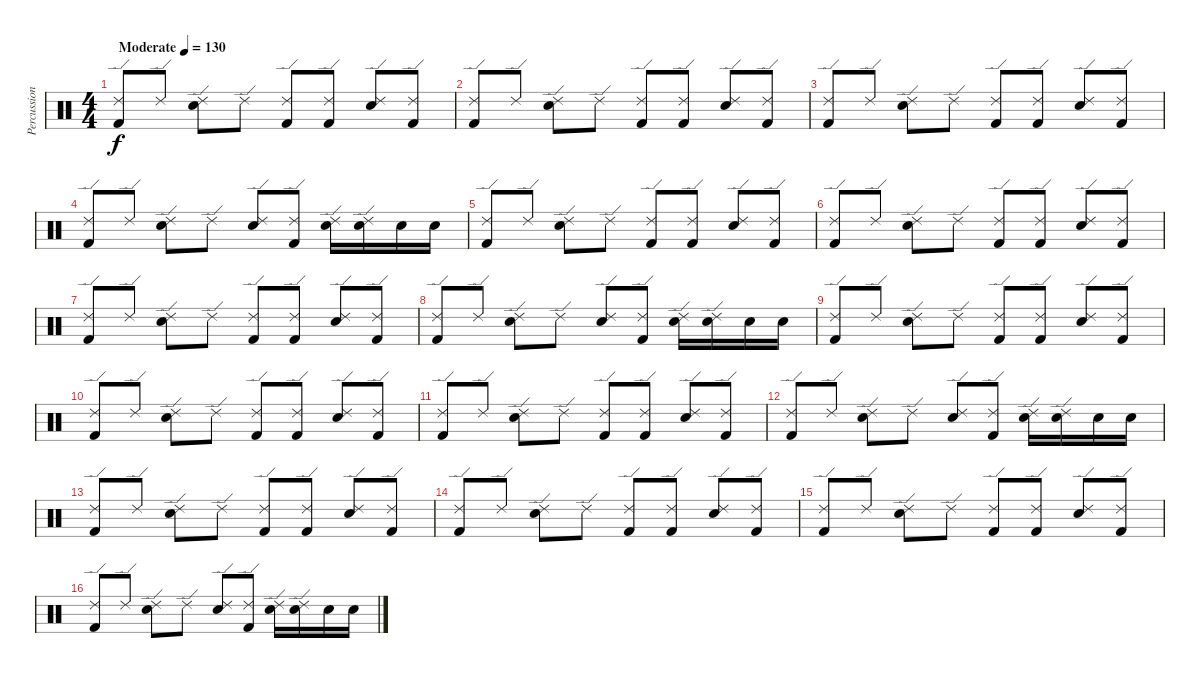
\track ("Percussion" "Percussion") {instrument percussion}
\staff {score}
\articulation defaults
\ts (4 4)
\tempo (130 "Moderate")
\clef neutral
\ks c
("Kick (hit) 2" "Ride (edge) 2").8{dy f} "Ride (edge) 2".8 ("Electric Snare (hit)" "Ride (edge) 2").8 "Ride (edge) 2".8 ("Kick (hit) 2" "Ride (edge) 2").8 ("Kick (hit) 2" "Ride (edge) 2").8 ("Electric Snare (hit)" "Ride (edge) 2").8 ("Kick (hit) 2" "Ride (edge) 2").8 |
("Kick (hit) 2" "Ride (edge) 2").8 "Ride (edge) 2".8 ("Electric Snare (hit)" "Ride (edge) 2").8 "Ride (edge) 2".8 ("Kick (hit) 2" "Ride (edge) 2").8 ("Kick (hit) 2" "Ride (edge) 2").8 ("Electric Snare (hit)" "Ride (edge) 2").8 ("Kick (hit) 2" "Ride (edge) 2").8 |
("Kick (hit) 2" "Ride (edge) 2").8 "Ride (edge) 2".8 ("Electric Snare (hit)" "Ride (edge) 2").8 "Ride (edge) 2".8 ("Kick (hit) 2" "Ride (edge) 2").8 ("Kick (hit) 2" "Ride (edge) 2").8 ("Electric Snare (hit)" "Ride (edge) 2").8 ("Kick (hit) 2" "Ride (edge) 2").8 |
("Kick (hit) 2" "Ride (edge) 2").8 "Ride (edge) 2".8 ("Electric Snare (hit)" "Ride (edge) 2").8 "Ride (edge) 2".8 ("Electric Snare (hit)" "Ride (edge) 2").8 ("Kick (hit) 2" "Ride (edge) 2").8 ("Electric Snare (hit)" "Ride (edge) 2").16 ("Electric Snare (hit)" "Ride (edge) 2").16 "Electric Snare (hit)".16 "Electric Snare (hit)".16 |
("Kick (hit) 2" "Ride (edge) 2").8 "Ride (edge) 2".8 ("Electric Snare (hit)" "Ride (edge) 2").8 "Ride (edge) 2".8 ("Kick (hit) 2" "Ride (edge) 2").8 ("Kick (hit) 2" "Ride (edge) 2").8 ("Electric Snare (hit)" "Ride (edge) 2").8 ("Kick (hit) 2" "Ride (edge) 2").8 |
("Kick (hit) 2" "Ride (edge) 2").8 "Ride (edge) 2".8 ("Electric Snare (hit)" "Ride (edge) 2").8 "Ride (edge) 2".8 ("Kick (hit) 2" "Ride (edge) 2").8 ("Kick (hit) 2" "Ride (edge) 2").8 ("Electric Snare (hit)" "Ride (edge) 2").8 ("Kick (hit) 2" "Ride (edge) 2").8 |
("Kick (hit) 2" "Ride (edge) 2").8 "Ride (edge) 2".8 ("Electric Snare (hit)" "Ride (edge) 2").8 "Ride (edge) 2".8 ("Kick (hit) 2" "Ride (edge) 2").8 ("Kick (hit) 2" "Ride (edge) 2").8 ("Electric Snare (hit)" "Ride (edge) 2").8 ("Kick (hit) 2" "Ride (edge) 2").8 |
("Kick (hit) 2" "Ride (edge) 2").8 "Ride (edge) 2".8 ("Electric Snare (hit)" "Ride (edge) 2").8 "Ride (edge) 2".8 ("Electric Snare (hit)" "Ride (edge) 2").8 ("Kick (hit) 2" "Ride (edge) 2").8 ("Electric Snare (hit)" "Ride (edge) 2").16 ("Electric Snare (hit)" "Ride (edge) 2").16 "Electric Snare (hit)".16 "Electric Snare (hit)".16 |
("Kick (hit) 2" "Ride (edge) 2").8 "Ride (edge) 2".8 ("Electric Snare (hit)" "Ride (edge) 2").8 "Ride (edge) 2".8 ("Kick (hit) 2" "Ride (edge) 2").8 ("Kick (hit) 2" "Ride (edge) 2").8 ("Electric Snare (hit)" "Ride (edge) 2").8 ("Kick (hit) 2" "Ride (edge) 2").8 |
("Kick (hit) 2" "Ride (edge) 2").8 "Ride (edge) 2".8 ("Electric Snare (hit)" "Ride (edge) 2").8 "Ride (edge) 2".8 ("Kick (hit) 2" "Ride (edge) 2").8 ("Kick (hit) 2" "Ride (edge) 2").8 ("Electric Snare (hit)" "Ride (edge) 2").8 ("Kick (hit) 2" "Ride (edge) 2").8 |
("Kick (hit) 2" "Ride (edge) 2").8 "Ride (edge) 2".8 ("Electric Snare (hit)" "Ride (edge) 2").8 "Ride (edge) 2".8 ("Kick (hit) 2" "Ride (edge) 2").8 ("Kick (hit) 2" "Ride (edge) 2").8 ("Electric Snare (hit)" "Ride (edge) 2").8 ("Kick (hit) 2" "Ride (edge) 2").8 |
("Kick (hit) 2" "Ride (edge) 2").8 "Ride (edge) 2".8 ("Electric Snare (hit)" "Ride (edge) 2").8 "Ride (edge) 2".8 ("Electric Snare (hit)" "Ride (edge) 2").8 ("Kick (hit) 2" "Ride (edge) 2").8 ("Electric Snare (hit)" "Ride (edge) 2").16 ("Electric Snare (hit)" "Ride (edge) 2").16 "Electric Snare (hit)".16 "Electric Snare (hit)".16 |
("Kick (hit) 2" "Ride (edge) 2").8 "Ride (edge) 2".8 ("Electric Snare (hit)" "Ride (edge) 2").8 "Ride (edge) 2".8 ("Kick (hit) 2" "Ride (edge) 2").8 ("Kick (hit) 2" "Ride (edge) 2").8 ("Electric Snare (hit)" "Ride (edge) 2").8 ("Kick (hit) 2" "Ride (edge) 2").8 |
("Kick (hit) 2" "Ride (edge) 2").8 "Ride (edge) 2".8 ("Electric Snare (hit)" "Ride (edge) 2").8 "Ride (edge) 2".8 ("Kick (hit) 2" "Ride (edge) 2").8 ("Kick (hit) 2" "Ride (edge) 2").8 ("Electric Snare (hit)" "Ride (edge) 2").8 ("Kick (hit) 2" "Ride (edge) 2").8 |
("Kick (hit) 2" "Ride (edge) 2").8 "Ride (edge) 2".8 ("Electric Snare (hit)" "Ride (edge) 2").8 "Ride (edge) 2".8 ("Kick (hit) 2" "Ride (edge) 2").8 ("Kick (hit) 2" "Ride (edge) 2").8 ("Electric Snare (hit)" "Ride (edge) 2").8 ("Kick (hit) 2" "Ride (edge) 2").8 |
("Kick (hit) 2" "Ride (edge) 2").8 "Ride (edge) 2".8 ("Electric Snare (hit)" "Ride (edge) 2").8 "Ride (edge) 2".8 ("Electric Snare (hit)" "Ride (edge) 2").8 ("Kick (hit) 2" "Ride (edge) 2").8 ("Electric Snare (hit)" "Ride (edge) 2").16 ("Electric Snare (hit)" "Ride (edge) 2").16 "Electric Snare (hit)".16 "Electric Snare (hit)".16
